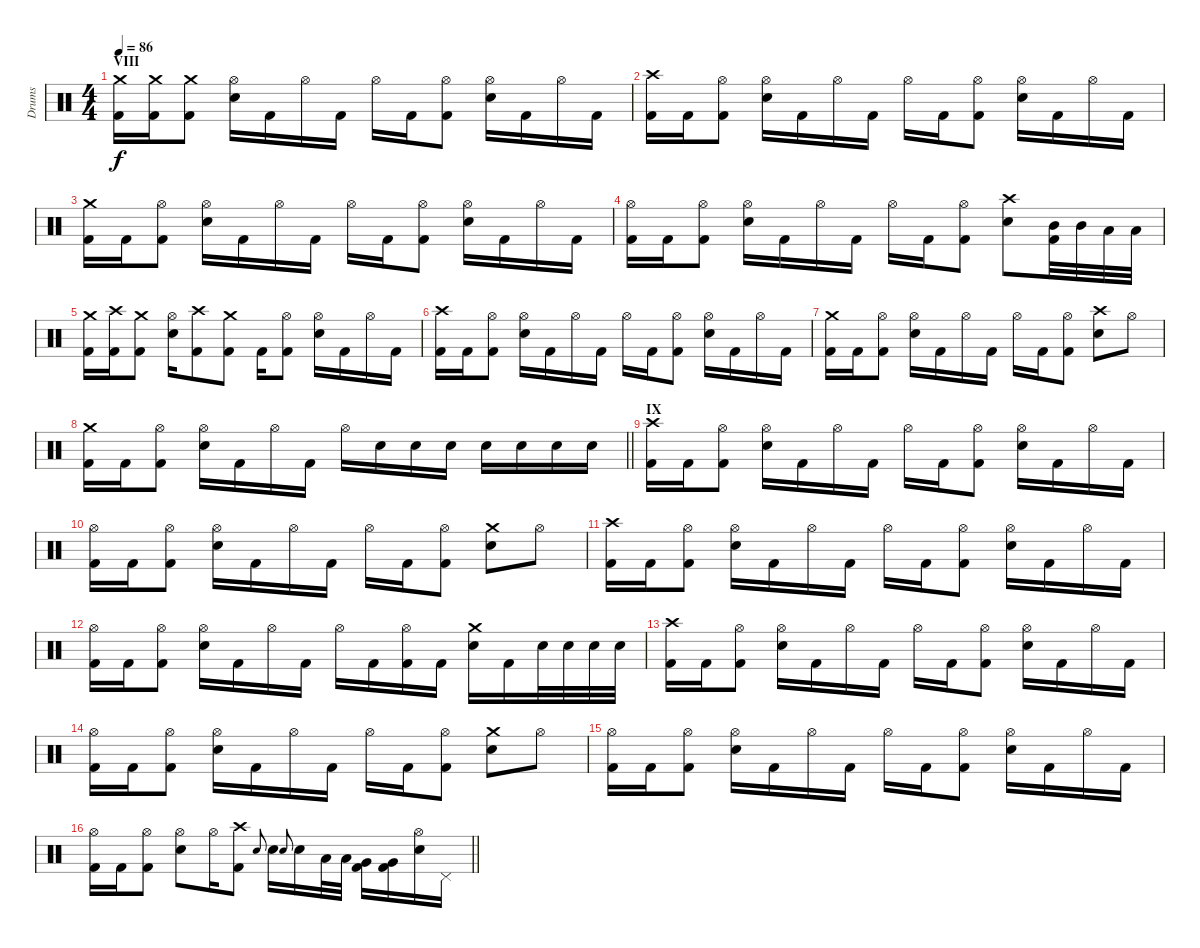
\track ("Drums" "Drums") {instrument percussion}
\staff {score}
\articulation defaults
\ts (4 4)
\section ("" "VIII")
\tempo 86
\clef neutral
\ks c
("Kick (hit) 2" "Crash medium (hit)").16{dy f} ("Kick (hit) 2" "Crash medium (hit)").16 ("Kick (hit) 2" "Crash medium (hit)").8 ("Hi-Hat (open)" "Electric Snare (hit)").16 "Kick (hit) 2".16 "Hi-Hat (open)".16 "Kick (hit) 2".16 "Hi-Hat (open)".16 "Kick (hit) 2".16 ("Hi-Hat (open)" "Kick (hit) 2").8 ("Hi-Hat (open)" "Electric Snare (hit)").16 "Kick (hit) 2".16 "Hi-Hat (open)".16 "Kick (hit) 2".16 |
("Kick (hit) 2" "Crash high (hit)").16 "Kick (hit) 2".16 ("Hi-Hat (open)" "Kick (hit) 2").8 ("Hi-Hat (open)" "Electric Snare (hit)").16 "Kick (hit) 2".16 "Hi-Hat (open)".16 "Kick (hit) 2".16 "Hi-Hat (open)".16 "Kick (hit) 2".16 ("Hi-Hat (open)" "Kick (hit) 2").8 ("Hi-Hat (open)" "Electric Snare (hit)").16 "Kick (hit) 2".16 "Hi-Hat (open)".16 "Kick (hit) 2".16 |
("Kick (hit) 2" "Crash medium (hit)").16 "Kick (hit) 2".16 ("Hi-Hat (open)" "Kick (hit) 2").8 ("Hi-Hat (open)" "Electric Snare (hit)").16 "Kick (hit) 2".16 "Hi-Hat (open)".16 "Kick (hit) 2".16 "Hi-Hat (open)".16 "Kick (hit) 2".16 ("Hi-Hat (open)" "Kick (hit) 2").8 ("Hi-Hat (open)" "Electric Snare (hit)").16 "Kick (hit) 2".16 "Hi-Hat (open)".16 "Kick (hit) 2".16 |
("Hi-Hat (open)" "Kick (hit) 2").16 "Kick (hit) 2".16 ("Hi-Hat (open)" "Kick (hit) 2").8 ("Hi-Hat (open)" "Electric Snare (hit)").16 "Kick (hit) 2".16 "Hi-Hat (open)".16 "Kick (hit) 2".16 "Hi-Hat (open)".16 "Kick (hit) 2".16 ("Hi-Hat (open)" "Kick (hit) 2").8 ("Crash high (hit)" "Electric Snare (hit)").8 ("Mid Tom (hit)" "Kick (hit) 2").32 "Mid Tom (hit)".32 "Low Tom (hit)".32 "Low Tom (hit)".32 |
("Kick (hit) 2" "Crash medium (hit)").16 ("Kick (hit) 2" "Crash high (hit)").16 ("Kick (hit) 2" "Crash medium (hit)").8 ("Hi-Hat (open)" "Electric Snare (hit)").16 ("Kick (hit) 2" "Crash high (hit)").8 ("Kick (hit) 2" "Crash medium (hit)").8 "Kick (hit) 2".16 ("Hi-Hat (open)" "Kick (hit) 2").8 ("Hi-Hat (open)" "Electric Snare (hit)").16 "Kick (hit) 2".16 "Hi-Hat (open)".16 "Kick (hit) 2".16 |
("Kick (hit) 2" "Crash high (hit)").16 "Kick (hit) 2".16 ("Hi-Hat (open)" "Kick (hit) 2").8 ("Hi-Hat (open)" "Electric Snare (hit)").16 "Kick (hit) 2".16 "Hi-Hat (open)".16 "Kick (hit) 2".16 "Hi-Hat (open)".16 "Kick (hit) 2".16 ("Hi-Hat (open)" "Kick (hit) 2").8 ("Hi-Hat (open)" "Electric Snare (hit)").16 "Kick (hit) 2".16 "Hi-Hat (open)".16 "Kick (hit) 2".16 |
("Kick (hit) 2" "Crash medium (hit)").16 "Kick (hit) 2".16 ("Hi-Hat (open)" "Kick (hit) 2").8 ("Hi-Hat (open)" "Electric Snare (hit)").16 "Kick (hit) 2".16 "Hi-Hat (open)".16 "Kick (hit) 2".16 "Hi-Hat (open)".16 "Kick (hit) 2".16 ("Hi-Hat (open)" "Kick (hit) 2").8 ("Crash high (hit)" "Electric Snare (hit)").8 "Hi-Hat (open)".8 |
\barLineRight lightlight
("Kick (hit) 2" "Crash medium (hit)").16 "Kick (hit) 2".16 ("Hi-Hat (open)" "Kick (hit) 2").8 ("Hi-Hat (open)" "Electric Snare (hit)").16 "Kick (hit) 2".16 "Hi-Hat (open)".16 "Kick (hit) 2".16 "Hi-Hat (open)".16 "Electric Snare (hit)".16 "Electric Snare (hit)".16 "Electric Snare (hit)".16 "Electric Snare (hit)".16 "Electric Snare (hit)".16 "Electric Snare (hit)".16 "Electric Snare (hit)".16 |
\section ("" "IX")
("Kick (hit) 2" "Crash high (hit)").16 "Kick (hit) 2".16 ("Hi-Hat (open)" "Kick (hit) 2").8 ("Hi-Hat (open)" "Electric Snare (hit)").16 "Kick (hit) 2".16 "Hi-Hat (open)".16 "Kick (hit) 2".16 "Hi-Hat (open)".16 "Kick (hit) 2".16 ("Hi-Hat (open)" "Kick (hit) 2").8 ("Hi-Hat (open)" "Electric Snare (hit)").16 "Kick (hit) 2".16 "Hi-Hat (open)".16 "Kick (hit) 2".16 |
("Hi-Hat (open)" "Kick (hit) 2").16 "Kick (hit) 2".16 ("Hi-Hat (open)" "Kick (hit) 2").8 ("Hi-Hat (open)" "Electric Snare (hit)").16 "Kick (hit) 2".16 "Hi-Hat (open)".16 "Kick (hit) 2".16 "Hi-Hat (open)".16 "Kick (hit) 2".16 ("Hi-Hat (open)" "Kick (hit) 2").8 ("Crash medium (hit)" "Electric Snare (hit)").8 "Hi-Hat (open)".8 |
("Kick (hit) 2" "Crash high (hit)").16 "Kick (hit) 2".16 ("Hi-Hat (open)" "Kick (hit) 2").8 ("Hi-Hat (open)" "Electric Snare (hit)").16 "Kick (hit) 2".16 "Hi-Hat (open)".16 "Kick (hit) 2".16 "Hi-Hat (open)".16 "Kick (hit) 2".16 ("Hi-Hat (open)" "Kick (hit) 2").8 ("Hi-Hat (open)" "Electric Snare (hit)").16 "Kick (hit) 2".16 "Hi-Hat (open)".16 "Kick (hit) 2".16 |
("Hi-Hat (open)" "Kick (hit) 2").16 "Kick (hit) 2".16 ("Hi-Hat (open)" "Kick (hit) 2").8 ("Hi-Hat (open)" "Electric Snare (hit)").16 "Kick (hit) 2".16 "Hi-Hat (open)".16 "Kick (hit) 2".16 "Hi-Hat (open)".16 "Kick (hit) 2".16 ("Hi-Hat (open)" "Kick (hit) 2").16 "Kick (hit) 2".16 ("Crash medium (hit)" "Electric Snare (hit)").16 "Kick (hit) 2".16 "Electric Snare (hit)".32 "Electric Snare (hit)".32 "Electric Snare (hit)".32 "Electric Snare (hit)".32 |
("Kick (hit) 2" "Crash high (hit)").16 "Kick (hit) 2".16 ("Hi-Hat (open)" "Kick (hit) 2").8 ("Hi-Hat (open)" "Electric Snare (hit)").16 "Kick (hit) 2".16 "Hi-Hat (open)".16 "Kick (hit) 2".16 "Hi-Hat (open)".16 "Kick (hit) 2".16 ("Hi-Hat (open)" "Kick (hit) 2").8 ("Hi-Hat (open)" "Electric Snare (hit)").16 "Kick (hit) 2".16 "Hi-Hat (open)".16 "Kick (hit) 2".16 |
("Hi-Hat (open)" "Kick (hit) 2").16 "Kick (hit) 2".16 ("Hi-Hat (open)" "Kick (hit) 2").8 ("Hi-Hat (open)" "Electric Snare (hit)").16 "Kick (hit) 2".16 "Hi-Hat (open)".16 "Kick (hit) 2".16 "Hi-Hat (open)".16 "Kick (hit) 2".16 ("Hi-Hat (open)" "Kick (hit) 2").8 ("Crash medium (hit)" "Electric Snare (hit)").8 "Hi-Hat (open)".8 |
("Hi-Hat (open)" "Kick (hit) 2").16 "Kick (hit) 2".16 ("Hi-Hat (open)" "Kick (hit) 2").8 ("Hi-Hat (open)" "Electric Snare (hit)").16 "Kick (hit) 2".16 "Hi-Hat (open)".16 "Kick (hit) 2".16 "Hi-Hat (open)".16 "Kick (hit) 2".16 ("Hi-Hat (open)" "Kick (hit) 2").8 ("Hi-Hat (open)" "Electric Snare (hit)").16 "Kick (hit) 2".16 "Hi-Hat (open)".16 "Kick (hit) 2".16 |
\barLineRight lightlight
("Hi-Hat (open)" "Kick (hit) 2").16 "Kick (hit) 2".16 ("Hi-Hat (open)" "Kick (hit) 2").8 ("Hi-Hat (open)" "Electric Snare (hit)").8 "Hi-Hat (open)".16 ("Kick (hit) 2" "Crash high (hit)").8 "Electric Snare (hit)".8{gr onbeat} "Electric Snare (hit)".16 "Electric Snare (hit)".8{gr onbeat} "Electric Snare (hit)".16 "Low Tom (hit)".32 "Low Tom (hit)".32 ("Very Low Tom (hit)" "Kick (hit) 2").16 ("Very Low Tom (hit)" "Kick (hit) 2").16 ("Hi-Hat (open)" "Electric Snare (hit)").16 "Pedal Hi-Hat (hit)".16
